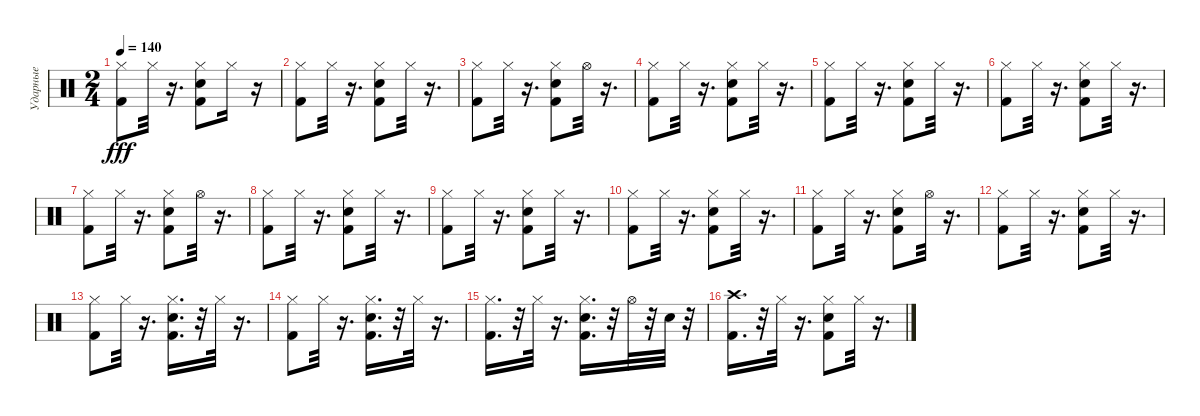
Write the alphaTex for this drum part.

\track ("Ударные" "Ударные") {instrument percussion}
\staff {score}
\articulation defaults
\ts (2 4)
\tempo 140
\clef neutral
\ks c
("Kick (hit) 2" "Hi-Hat (closed)").8{dy fff} "Hi-Hat (closed)".32 r.16{d} ("Snare (hit) 2" "Kick (hit) 2" "Hi-Hat (closed)").8 "Hi-Hat (closed)".16 r.16 |
("Kick (hit) 2" "Hi-Hat (closed)").8 "Hi-Hat (closed)".32 r.16{d} ("Snare (hit) 2" "Kick (hit) 2" "Hi-Hat (closed)").8 "Hi-Hat (closed)".32 r.16{d} |
("Kick (hit) 2" "Hi-Hat (closed)").8 "Hi-Hat (closed)".32 r.16{d} ("Kick (hit) 2" "Snare (hit) 2" "Hi-Hat (closed)").8 "Hi-Hat (open)".32 r.16{d} |
("Kick (hit) 2" "Hi-Hat (closed)").8 "Hi-Hat (closed)".32 r.16{d} ("Kick (hit) 2" "Hi-Hat (closed)" "Snare (hit) 2").8 "Hi-Hat (closed)".32 r.16{d} |
("Kick (hit) 2" "Hi-Hat (closed)").8 "Hi-Hat (closed)".32 r.16{d} ("Snare (hit) 2" "Kick (hit) 2" "Hi-Hat (closed)").8 "Hi-Hat (closed)".32 r.16{d} |
("Kick (hit) 2" "Hi-Hat (closed)").8 "Hi-Hat (closed)".32 r.16{d} ("Snare (hit) 2" "Kick (hit) 2" "Hi-Hat (closed)").8 "Hi-Hat (closed)".32 r.16{d} |
("Kick (hit) 2" "Hi-Hat (closed)").8 "Hi-Hat (closed)".32 r.16{d} ("Kick (hit) 2" "Hi-Hat (closed)" "Snare (hit) 2").8 "Hi-Hat (open)".32 r.16{d} |
("Kick (hit) 2" "Hi-Hat (closed)").8 "Hi-Hat (closed)".32 r.16{d} ("Snare (hit) 2" "Kick (hit) 2" "Hi-Hat (closed)").8 "Hi-Hat (closed)".32 r.16{d} |
("Kick (hit) 2" "Hi-Hat (closed)").8 "Hi-Hat (closed)".32 r.16{d} ("Snare (hit) 2" "Kick (hit) 2" "Hi-Hat (closed)").8 "Hi-Hat (closed)".32 r.16{d} |
("Kick (hit) 2" "Hi-Hat (closed)").8 "Hi-Hat (closed)".32 r.16{d} ("Kick (hit) 2" "Hi-Hat (closed)" "Snare (hit) 2").8 "Hi-Hat (closed)".32 r.16{d} |
("Kick (hit) 2" "Hi-Hat (closed)").8 "Hi-Hat (closed)".32 r.16{d} ("Snare (hit) 2" "Kick (hit) 2" "Hi-Hat (closed)").8 "Hi-Hat (open)".32 r.16{d} |
("Kick (hit) 2" "Hi-Hat (closed)").8 "Hi-Hat (closed)".32 r.16{d} ("Snare (hit) 2" "Kick (hit) 2" "Hi-Hat (closed)").8 "Hi-Hat (closed)".32 r.16{d} |
("Kick (hit) 2" "Hi-Hat (closed)").8 "Hi-Hat (closed)".32 r.16{d} ("Snare (hit) 2" "Kick (hit) 2" "Hi-Hat (closed)").16{d} r.32 "Hi-Hat (closed)".32 r.16{d} |
("Kick (hit) 2" "Hi-Hat (closed)").8 "Hi-Hat (closed)".32 r.16{d} ("Hi-Hat (closed)" "Snare (hit) 2" "Kick (hit) 2").16{d} r.32 "Hi-Hat (closed)".32 r.16{d} |
("Kick (hit) 2" "Hi-Hat (closed)").16{d} r.32 "Hi-Hat (closed)".32 r.16{d} ("Snare (hit) 2" "Kick (hit) 2" "Hi-Hat (closed)").16{d} r.32 "Hi-Hat (open)".32 r.32 "Snare (hit) 2".32 r.32 |
("Crash high (hit)" "Kick (hit) 2").16{d} r.32 "Hi-Hat (closed)".32 r.16{d} ("Kick (hit) 2" "Snare (hit) 2" "Hi-Hat (closed)").8 "Hi-Hat (closed)".32 r.16{d}
